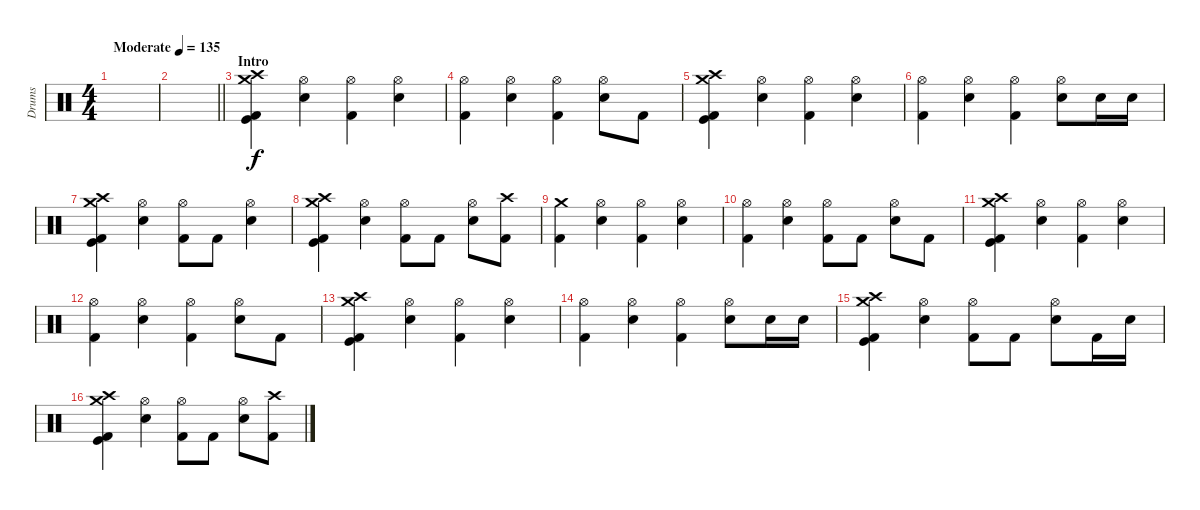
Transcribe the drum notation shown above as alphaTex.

\track ("Drums" "Drums") {instrument percussion}
\staff {score}
\articulation defaults
\ts (4 4)
\section ("" "")
\tempo (135 "Moderate")
\clef neutral
\ks c
|
\barLineRight lightlight
|
\section ("" "Intro")
("Crash high (hit)" "Crash medium (hit)" "Kick (hit) 2" "Kick (hit)").4 ("Hi-Hat (open)" "Snare (hit) 2").4 ("Hi-Hat (open)" "Kick (hit) 2").4 ("Hi-Hat (open)" "Snare (hit) 2").4 |
("Hi-Hat (open)" "Kick (hit) 2").4 ("Hi-Hat (open)" "Snare (hit) 2").4 ("Hi-Hat (open)" "Kick (hit) 2").4 ("Hi-Hat (open)" "Snare (hit) 2").8 "Kick (hit) 2".8 |
("Crash medium (hit)" "Crash high (hit)" "Kick (hit)" "Kick (hit) 2").4 ("Hi-Hat (open)" "Snare (hit) 2").4 ("Hi-Hat (open)" "Kick (hit) 2").4 ("Hi-Hat (open)" "Snare (hit) 2").4 |
("Hi-Hat (open)" "Kick (hit) 2").4 ("Hi-Hat (open)" "Snare (hit) 2").4 ("Hi-Hat (open)" "Kick (hit) 2").4 ("Hi-Hat (open)" "Snare (hit) 2").8 "Snare (hit) 2".16 "Snare (hit) 2".16 |
("Crash medium (hit)" "Crash high (hit)" "Kick (hit)" "Kick (hit) 2").4 ("Hi-Hat (open)" "Snare (hit) 2").4 ("Hi-Hat (open)" "Kick (hit) 2").8 "Kick (hit) 2".8 ("Hi-Hat (open)" "Snare (hit) 2").4 |
("Crash medium (hit)" "Crash high (hit)" "Kick (hit)" "Kick (hit) 2").4 ("Hi-Hat (open)" "Snare (hit) 2").4 ("Hi-Hat (open)" "Kick (hit) 2").8 "Kick (hit) 2".8 ("Hi-Hat (open)" "Snare (hit) 2").8 ("Crash high (hit)" "Kick (hit) 2").8 |
("Crash medium (hit)" "Kick (hit) 2").4 ("Hi-Hat (open)" "Snare (hit) 2").4 ("Hi-Hat (open)" "Kick (hit) 2").4 ("Hi-Hat (open)" "Snare (hit) 2").4 |
("Hi-Hat (open)" "Kick (hit) 2").4 ("Hi-Hat (open)" "Snare (hit) 2").4 ("Hi-Hat (open)" "Kick (hit) 2").8 "Kick (hit) 2".8 ("Hi-Hat (open)" "Snare (hit) 2").8 "Kick (hit) 2".8 |
("Crash high (hit)" "Crash medium (hit)" "Kick (hit) 2" "Kick (hit)").4 ("Hi-Hat (open)" "Snare (hit) 2").4 ("Hi-Hat (open)" "Kick (hit) 2").4 ("Hi-Hat (open)" "Snare (hit) 2").4 |
("Hi-Hat (open)" "Kick (hit) 2").4 ("Hi-Hat (open)" "Snare (hit) 2").4 ("Hi-Hat (open)" "Kick (hit) 2").4 ("Hi-Hat (open)" "Snare (hit) 2").8 "Kick (hit) 2".8 |
("Crash medium (hit)" "Crash high (hit)" "Kick (hit)" "Kick (hit) 2").4 ("Hi-Hat (open)" "Snare (hit) 2").4 ("Hi-Hat (open)" "Kick (hit) 2").4 ("Hi-Hat (open)" "Snare (hit) 2").4 |
("Hi-Hat (open)" "Kick (hit) 2").4 ("Hi-Hat (open)" "Snare (hit) 2").4 ("Hi-Hat (open)" "Kick (hit) 2").4 ("Hi-Hat (open)" "Snare (hit) 2").8 "Snare (hit) 2".16 "Snare (hit) 2".16 |
("Crash medium (hit)" "Crash high (hit)" "Kick (hit)" "Kick (hit) 2").4 ("Hi-Hat (open)" "Snare (hit) 2").4 ("Hi-Hat (open)" "Kick (hit) 2").8 "Kick (hit) 2".8 ("Hi-Hat (open)" "Snare (hit) 2").8 "Kick (hit) 2".16 "Snare (hit) 2".16 |
("Crash medium (hit)" "Crash high (hit)" "Kick (hit)" "Kick (hit) 2").4 ("Hi-Hat (open)" "Snare (hit) 2").4 ("Hi-Hat (open)" "Kick (hit) 2").8 "Kick (hit) 2".8 ("Hi-Hat (open)" "Snare (hit) 2").8 ("Crash high (hit)" "Kick (hit) 2").8
